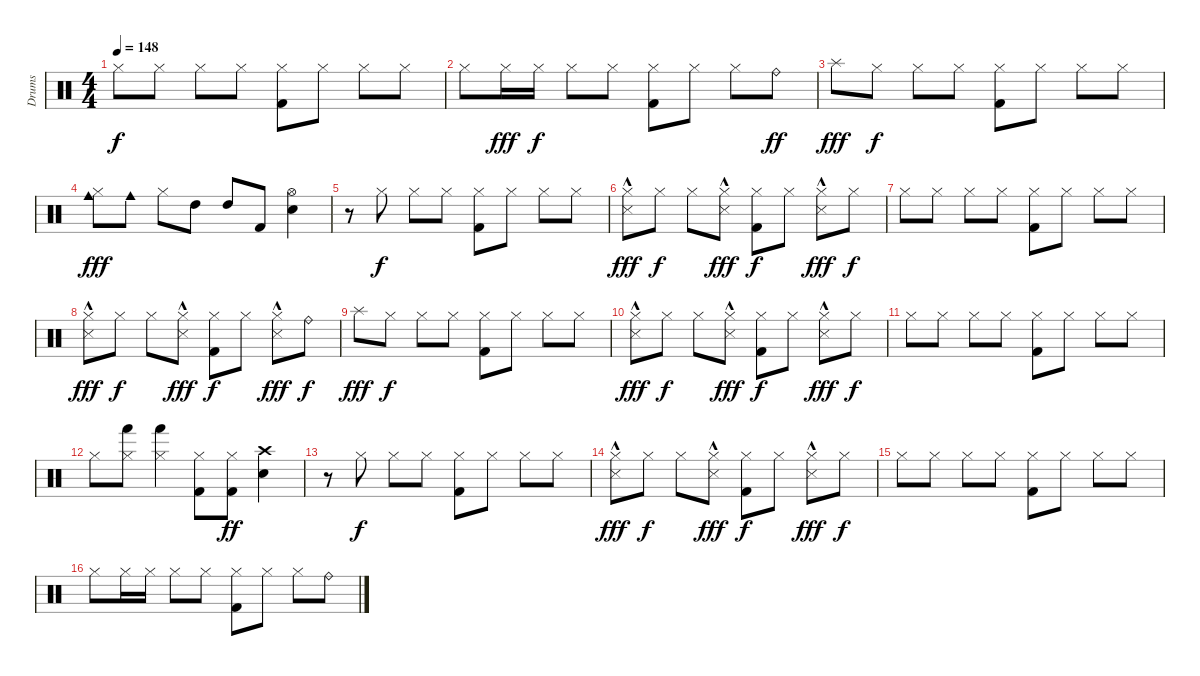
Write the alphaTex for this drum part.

\track ("Drums" "Drums") {instrument percussion}
\staff {score}
\articulation defaults
\ts (4 4)
\tempo 148
\clef neutral
\ks c "Hi-Hat (closed)".8{dy f} "Hi-Hat (closed)".8 "Hi-Hat (closed)".8 "Hi-Hat (closed)".8
("Hi-Hat (closed)" "Kick (hit) 2").8 "Hi-Hat (closed)".8 "Hi-Hat (closed)".8 "Hi-Hat (closed)".8 |
"Hi-Hat (closed)".8 "Hi-Hat (closed)".16{dy fff} "Hi-Hat (closed)".16{dy f} "Hi-Hat (closed)".8 "Hi-Hat (closed)".8 ("Hi-Hat (closed)" "Kick (hit) 2").8 "Hi-Hat (closed)".8 "Hi-Hat (closed)".8 "Ride (bell)".8{dy ff} |
"Splash (hit)".8{dy fff} "Hi-Hat (closed)".8{dy f} "Hi-Hat (closed)".8 "Hi-Hat (closed)".8 ("Hi-Hat (closed)" "Kick (hit) 2").8 "Hi-Hat (closed)".8 "Hi-Hat (closed)".8 "Hi-Hat (closed)".8 |
("Hi-Hat (closed)" "Cowbell medium (hit)").8{dy fff} "Cowbell medium (hit)".8 "Hi-Hat (closed)".8 "High Tom (hit)".8 "High Tom (hit)".8 "Kick (hit) 2".8 ("Hi-Hat (open)" "Electric Snare (hit)").4 |
r.8 "Hi-Hat (closed)".8{dy f} "Hi-Hat (closed)".8 "Hi-Hat (closed)".8 ("Hi-Hat (closed)" "Kick (hit) 2").8 "Hi-Hat (closed)".8 "Hi-Hat (closed)".8 "Hi-Hat (closed)".8 |
("Hi-Hat (closed)" "Snare (side stick) 3"{hac}).8{dy fff} "Hi-Hat (closed)".8{dy f} "Hi-Hat (closed)".8 ("Hi-Hat (closed)" "Snare (side stick) 3"{hac}).8{dy fff} ("Hi-Hat (closed)" "Kick (hit) 2").8{dy f} "Hi-Hat (closed)".8 ("Hi-Hat (closed)" "Snare (side stick) 3"{hac}).8{dy fff} "Hi-Hat (closed)".8{dy f} |
"Hi-Hat (closed)".8 "Hi-Hat (closed)".8 "Hi-Hat (closed)".8 "Hi-Hat (closed)".8 ("Hi-Hat (closed)" "Kick (hit) 2").8 "Hi-Hat (closed)".8 "Hi-Hat (closed)".8 "Hi-Hat (closed)".8 |
("Hi-Hat (closed)" "Snare (side stick) 3"{hac}).8{dy fff} "Hi-Hat (closed)".8{dy f} "Hi-Hat (closed)".8 ("Hi-Hat (closed)" "Snare (side stick) 3"{hac}).8{dy fff} ("Hi-Hat (closed)" "Kick (hit) 2").8{dy f} "Hi-Hat (closed)".8 ("Hi-Hat (closed)" "Snare (side stick) 3"{hac}).8{dy fff} "Ride (bell)".8{dy f} |
"Splash (hit)".8{dy fff} "Hi-Hat (closed)".8{dy f} "Hi-Hat (closed)".8 "Hi-Hat (closed)".8 ("Hi-Hat (closed)" "Kick (hit) 2").8 "Hi-Hat (closed)".8 "Hi-Hat (closed)".8 "Hi-Hat (closed)".8 |
("Hi-Hat (closed)" "Snare (side stick) 3"{hac}).8{dy fff} "Hi-Hat (closed)".8{dy f} "Hi-Hat (closed)".8 ("Hi-Hat (closed)" "Snare (side stick) 3"{hac}).8{dy fff} ("Hi-Hat (closed)" "Kick (hit) 2").8{dy f} "Hi-Hat (closed)".8 ("Hi-Hat (closed)" "Snare (side stick) 3"{hac}).8{dy fff} "Hi-Hat (closed)".8{dy f} |
"Hi-Hat (closed)".8 "Hi-Hat (closed)".8 "Hi-Hat (closed)".8 "Hi-Hat (closed)".8 ("Hi-Hat (closed)" "Kick (hit) 2").8 "Hi-Hat (closed)".8 "Hi-Hat (closed)".8 "Hi-Hat (closed)".8 |
"Hi-Hat (closed)".8 ("Hi-Hat (closed)" "Hand (hit)").8 ("Hi-Hat (closed)" "Hand (hit)").4 ("Hi-Hat (closed)" "Kick (hit) 2").8 ("Hi-Hat (closed)" "Kick (hit) 2").8{dy ff} ("Crash high (hit)" "Electric Snare (hit)").4 |
r.8 "Hi-Hat (closed)".8{dy f} "Hi-Hat (closed)".8 "Hi-Hat (closed)".8 ("Hi-Hat (closed)" "Kick (hit) 2").8 "Hi-Hat (closed)".8 "Hi-Hat (closed)".8 "Hi-Hat (closed)".8 |
("Hi-Hat (closed)" "Snare (side stick) 3"{hac}).8{dy fff} "Hi-Hat (closed)".8{dy f} "Hi-Hat (closed)".8 ("Hi-Hat (closed)" "Snare (side stick) 3"{hac}).8{dy fff} ("Hi-Hat (closed)" "Kick (hit) 2").8{dy f} "Hi-Hat (closed)".8 ("Hi-Hat (closed)" "Snare (side stick) 3"{hac}).8{dy fff} "Hi-Hat (closed)".8{dy f} |
"Hi-Hat (closed)".8 "Hi-Hat (closed)".8 "Hi-Hat (closed)".8 "Hi-Hat (closed)".8 ("Hi-Hat (closed)" "Kick (hit) 2").8 "Hi-Hat (closed)".8 "Hi-Hat (closed)".8 "Hi-Hat (closed)".8 |
"Hi-Hat (closed)".8 "Hi-Hat (closed)".16 "Hi-Hat (closed)".16 "Hi-Hat (closed)".8 "Hi-Hat (closed)".8 ("Hi-Hat (closed)" "Kick (hit) 2").8 "Hi-Hat (closed)".8 "Hi-Hat (closed)".8 "Ride (bell)".8
